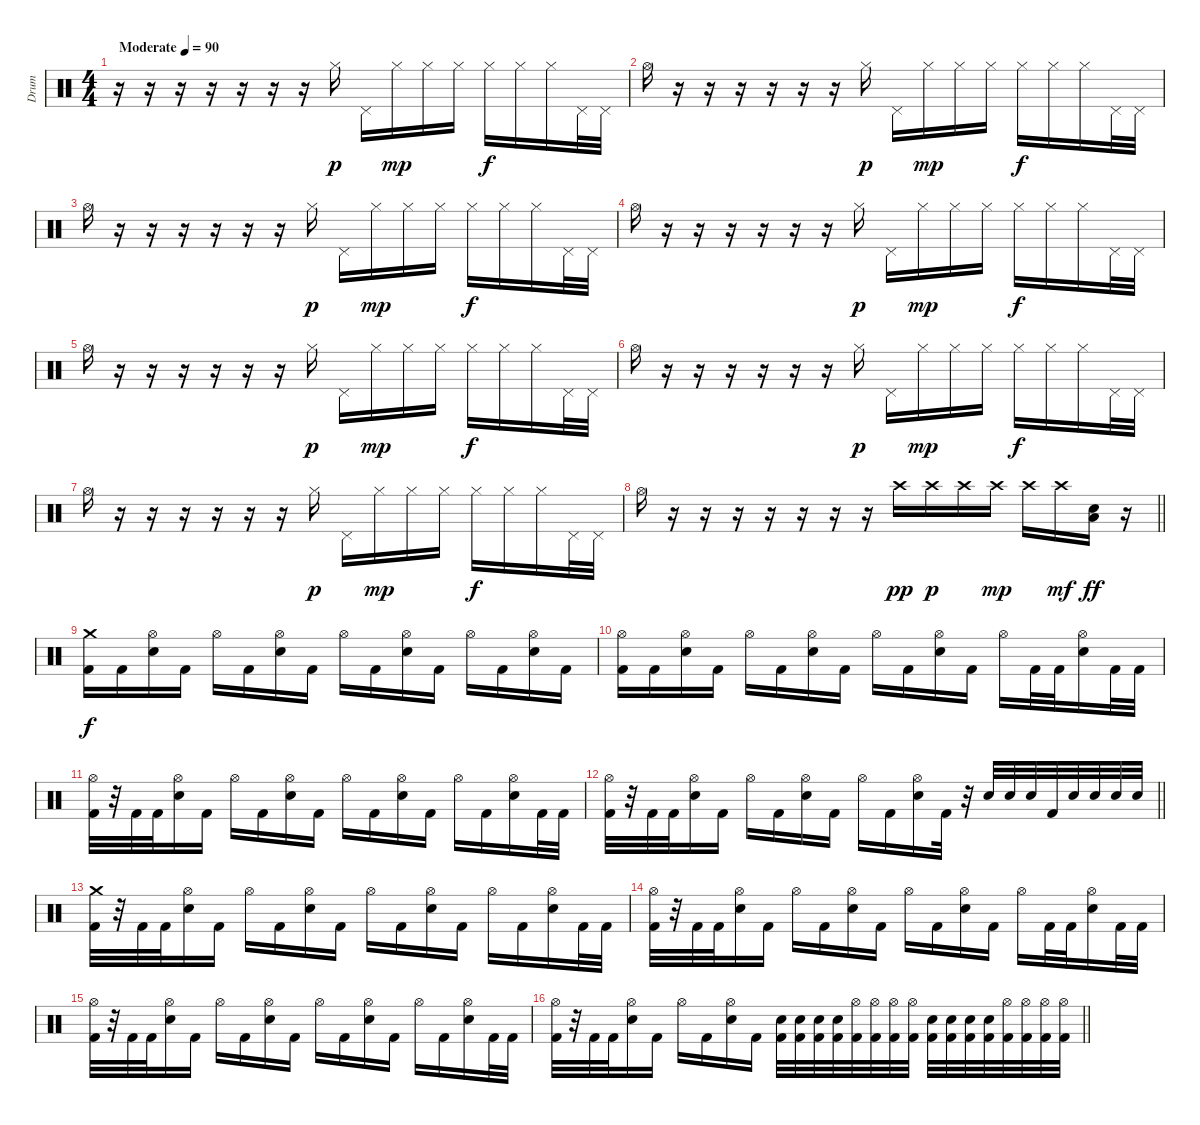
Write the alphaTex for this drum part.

\track ("Drum" "Drum") {instrument percussion}
\staff {score}
\articulation defaults
\ts (4 4)
\tempo (90 "Moderate")
\clef neutral
\ks c
r.16{dy p} r.16 r.16 r.16 r.16 r.16 r.16 "Hi-Hat (closed)".16 "Pedal Hi-Hat (hit)".16 "Hi-Hat (closed)".16{dy mp} "Hi-Hat (closed)".16 "Hi-Hat (closed)".16 "Hi-Hat (closed)".16{dy f} "Hi-Hat (closed)".16 "Hi-Hat (closed)".16 "Pedal Hi-Hat (hit)".32 "Pedal Hi-Hat (hit)".32 |
"Hi-Hat (open)".16 r.16 r.16 r.16 r.16 r.16 r.16 "Hi-Hat (closed)".16{dy p} "Pedal Hi-Hat (hit)".16 "Hi-Hat (closed)".16{dy mp} "Hi-Hat (closed)".16 "Hi-Hat (closed)".16 "Hi-Hat (closed)".16{dy f} "Hi-Hat (closed)".16 "Hi-Hat (closed)".16 "Pedal Hi-Hat (hit)".32 "Pedal Hi-Hat (hit)".32 |
"Hi-Hat (open)".16 r.16 r.16 r.16 r.16 r.16 r.16 "Hi-Hat (closed)".16{dy p} "Pedal Hi-Hat (hit)".16 "Hi-Hat (closed)".16{dy mp} "Hi-Hat (closed)".16 "Hi-Hat (closed)".16 "Hi-Hat (closed)".16{dy f} "Hi-Hat (closed)".16 "Hi-Hat (closed)".16 "Pedal Hi-Hat (hit)".32 "Pedal Hi-Hat (hit)".32 |
"Hi-Hat (open)".16 r.16 r.16 r.16 r.16 r.16 r.16 "Hi-Hat (closed)".16{dy p} "Pedal Hi-Hat (hit)".16 "Hi-Hat (closed)".16{dy mp} "Hi-Hat (closed)".16 "Hi-Hat (closed)".16 "Hi-Hat (closed)".16{dy f} "Hi-Hat (closed)".16 "Hi-Hat (closed)".16 "Pedal Hi-Hat (hit)".32 "Pedal Hi-Hat (hit)".32 |
"Hi-Hat (open)".16 r.16 r.16 r.16 r.16 r.16 r.16 "Hi-Hat (closed)".16{dy p} "Pedal Hi-Hat (hit)".16 "Hi-Hat (closed)".16{dy mp} "Hi-Hat (closed)".16 "Hi-Hat (closed)".16 "Hi-Hat (closed)".16{dy f} "Hi-Hat (closed)".16 "Hi-Hat (closed)".16 "Pedal Hi-Hat (hit)".32 "Pedal Hi-Hat (hit)".32 |
"Hi-Hat (open)".16 r.16 r.16 r.16 r.16 r.16 r.16 "Hi-Hat (closed)".16{dy p} "Pedal Hi-Hat (hit)".16 "Hi-Hat (closed)".16{dy mp} "Hi-Hat (closed)".16 "Hi-Hat (closed)".16 "Hi-Hat (closed)".16{dy f} "Hi-Hat (closed)".16 "Hi-Hat (closed)".16 "Pedal Hi-Hat (hit)".32 "Pedal Hi-Hat (hit)".32 |
"Hi-Hat (open)".16 r.16 r.16 r.16 r.16 r.16 r.16 "Hi-Hat (closed)".16{dy p} "Pedal Hi-Hat (hit)".16 "Hi-Hat (closed)".16{dy mp} "Hi-Hat (closed)".16 "Hi-Hat (closed)".16 "Hi-Hat (closed)".16{dy f} "Hi-Hat (closed)".16 "Hi-Hat (closed)".16 "Pedal Hi-Hat (hit)".32 "Pedal Hi-Hat (hit)".32 |
\barLineRight lightlight "Hi-Hat (open)".16
r.16 r.16 r.16 r.16 r.16 r.16 r.16 "Crash high (hit)".16{dy pp} "Crash high (hit)".16{dy p} "Crash high (hit)".16 "Crash high (hit)".16{dy mp} "Crash high (hit)".16 "Crash high (hit)".16{dy mf} ("Electric Snare (hit)" "Low Floor Tom (hit)").16{dy ff} r.16 |
\section ("" " ")
("Crash medium (hit)" "Kick (hit) 2").16{dy f} "Kick (hit) 2".16 ("Hi-Hat (open)" "Electric Snare (hit)").16 "Kick (hit) 2".16 "Hi-Hat (open)".16 "Kick (hit) 2".16 ("Hi-Hat (open)" "Electric Snare (hit)").16 "Kick (hit) 2".16 "Hi-Hat (open)".16 "Kick (hit) 2".16 ("Hi-Hat (open)" "Electric Snare (hit)").16 "Kick (hit) 2".16 "Hi-Hat (open)".16 "Kick (hit) 2".16 ("Hi-Hat (open)" "Electric Snare (hit)").16 "Kick (hit) 2".16 |
("Hi-Hat (open)" "Kick (hit) 2").16 "Kick (hit) 2".16 ("Hi-Hat (open)" "Electric Snare (hit)").16 "Kick (hit) 2".16 "Hi-Hat (open)".16 "Kick (hit) 2".16 ("Hi-Hat (open)" "Electric Snare (hit)").16 "Kick (hit) 2".16 "Hi-Hat (open)".16 "Kick (hit) 2".16 ("Hi-Hat (open)" "Electric Snare (hit)").16 "Kick (hit) 2".16 "Hi-Hat (open)".16 "Kick (hit) 2".32 "Kick (hit) 2".32 ("Hi-Hat (open)" "Electric Snare (hit)").16 "Kick (hit) 2".32 "Kick (hit) 2".32 |
("Hi-Hat (open)" "Kick (hit) 2").32 r.32 "Kick (hit) 2".32 "Kick (hit) 2".32 ("Hi-Hat (open)" "Electric Snare (hit)").16 "Kick (hit) 2".16 "Hi-Hat (open)".16 "Kick (hit) 2".16 ("Hi-Hat (open)" "Electric Snare (hit)").16 "Kick (hit) 2".16 "Hi-Hat (open)".16 "Kick (hit) 2".16 ("Hi-Hat (open)" "Electric Snare (hit)").16 "Kick (hit) 2".16 "Hi-Hat (open)".16 "Kick (hit) 2".16 ("Hi-Hat (open)" "Electric Snare (hit)").16 "Kick (hit) 2".32 "Kick (hit) 2".32 |
\barLineRight lightlight
("Hi-Hat (open)" "Kick (hit) 2").32 r.32 "Kick (hit) 2".32 "Kick (hit) 2".32 ("Hi-Hat (open)" "Electric Snare (hit)").16 "Kick (hit) 2".16 "Hi-Hat (open)".16 "Kick (hit) 2".16 ("Hi-Hat (open)" "Electric Snare (hit)").16 "Kick (hit) 2".16 "Hi-Hat (open)".16 "Kick (hit) 2".16 ("Hi-Hat (open)" "Electric Snare (hit)").16 "Kick (hit) 2".32 r.32 "Electric Snare (hit)".32 "Electric Snare (hit)".32 "Electric Snare (hit)".32 "Kick (hit) 2".32 "Electric Snare (hit)".32 "Electric Snare (hit)".32 "Electric Snare (hit)".32 "Electric Snare (hit)".32 |
\section ("" " ")
("Crash medium (hit)" "Kick (hit) 2").32 r.32 "Kick (hit) 2".32 "Kick (hit) 2".32 ("Hi-Hat (open)" "Electric Snare (hit)").16 "Kick (hit) 2".16 "Hi-Hat (open)".16 "Kick (hit) 2".16 ("Hi-Hat (open)" "Electric Snare (hit)").16 "Kick (hit) 2".16 "Hi-Hat (open)".16 "Kick (hit) 2".16 ("Hi-Hat (open)" "Electric Snare (hit)").16 "Kick (hit) 2".16 "Hi-Hat (open)".16 "Kick (hit) 2".16 ("Hi-Hat (open)" "Electric Snare (hit)").16 "Kick (hit) 2".32 "Kick (hit) 2".32 |
("Hi-Hat (open)" "Kick (hit) 2").32 r.32 "Kick (hit) 2".32 "Kick (hit) 2".32 ("Hi-Hat (open)" "Electric Snare (hit)").16 "Kick (hit) 2".16 "Hi-Hat (open)".16 "Kick (hit) 2".16 ("Hi-Hat (open)" "Electric Snare (hit)").16 "Kick (hit) 2".16 "Hi-Hat (open)".16 "Kick (hit) 2".16 ("Hi-Hat (open)" "Electric Snare (hit)").16 "Kick (hit) 2".16 "Hi-Hat (open)".16 "Kick (hit) 2".32 "Kick (hit) 2".32 ("Hi-Hat (open)" "Electric Snare (hit)").16 "Kick (hit) 2".32 "Kick (hit) 2".32 |
("Hi-Hat (open)" "Kick (hit) 2").32 r.32 "Kick (hit) 2".32 "Kick (hit) 2".32 ("Hi-Hat (open)" "Electric Snare (hit)").16 "Kick (hit) 2".16 "Hi-Hat (open)".16 "Kick (hit) 2".16 ("Hi-Hat (open)" "Electric Snare (hit)").16 "Kick (hit) 2".16 "Hi-Hat (open)".16 "Kick (hit) 2".16 ("Hi-Hat (open)" "Electric Snare (hit)").16 "Kick (hit) 2".16 "Hi-Hat (open)".16 "Kick (hit) 2".16 ("Hi-Hat (open)" "Electric Snare (hit)").16 "Kick (hit) 2".32 "Kick (hit) 2".32 |
\barLineRight lightlight
("Hi-Hat (open)" "Kick (hit) 2").32 r.32 "Kick (hit) 2".32 "Kick (hit) 2".32 ("Hi-Hat (open)" "Electric Snare (hit)").16 "Kick (hit) 2".16 "Hi-Hat (open)".16 "Kick (hit) 2".16 ("Hi-Hat (open)" "Electric Snare (hit)").16 "Kick (hit) 2".16 ("Electric Snare (hit)" "Kick (hit) 2").32 ("Electric Snare (hit)" "Kick (hit) 2").32 ("Electric Snare (hit)" "Kick (hit) 2").32 ("Electric Snare (hit)" "Kick (hit) 2").32 ("Hi-Hat (open)" "Kick (hit) 2").32 ("Hi-Hat (open)" "Kick (hit) 2").32 ("Hi-Hat (open)" "Kick (hit) 2").32 ("Hi-Hat (open)" "Kick (hit) 2").32 ("Electric Snare (hit)" "Kick (hit) 2").32 ("Electric Snare (hit)" "Kick (hit) 2").32 ("Electric Snare (hit)" "Kick (hit) 2").32 ("Electric Snare (hit)" "Kick (hit) 2").32 ("Hi-Hat (open)" "Kick (hit) 2").32 ("Hi-Hat (open)" "Kick (hit) 2").32 ("Hi-Hat (open)" "Kick (hit) 2").32 ("Hi-Hat (open)" "Kick (hit) 2").32
